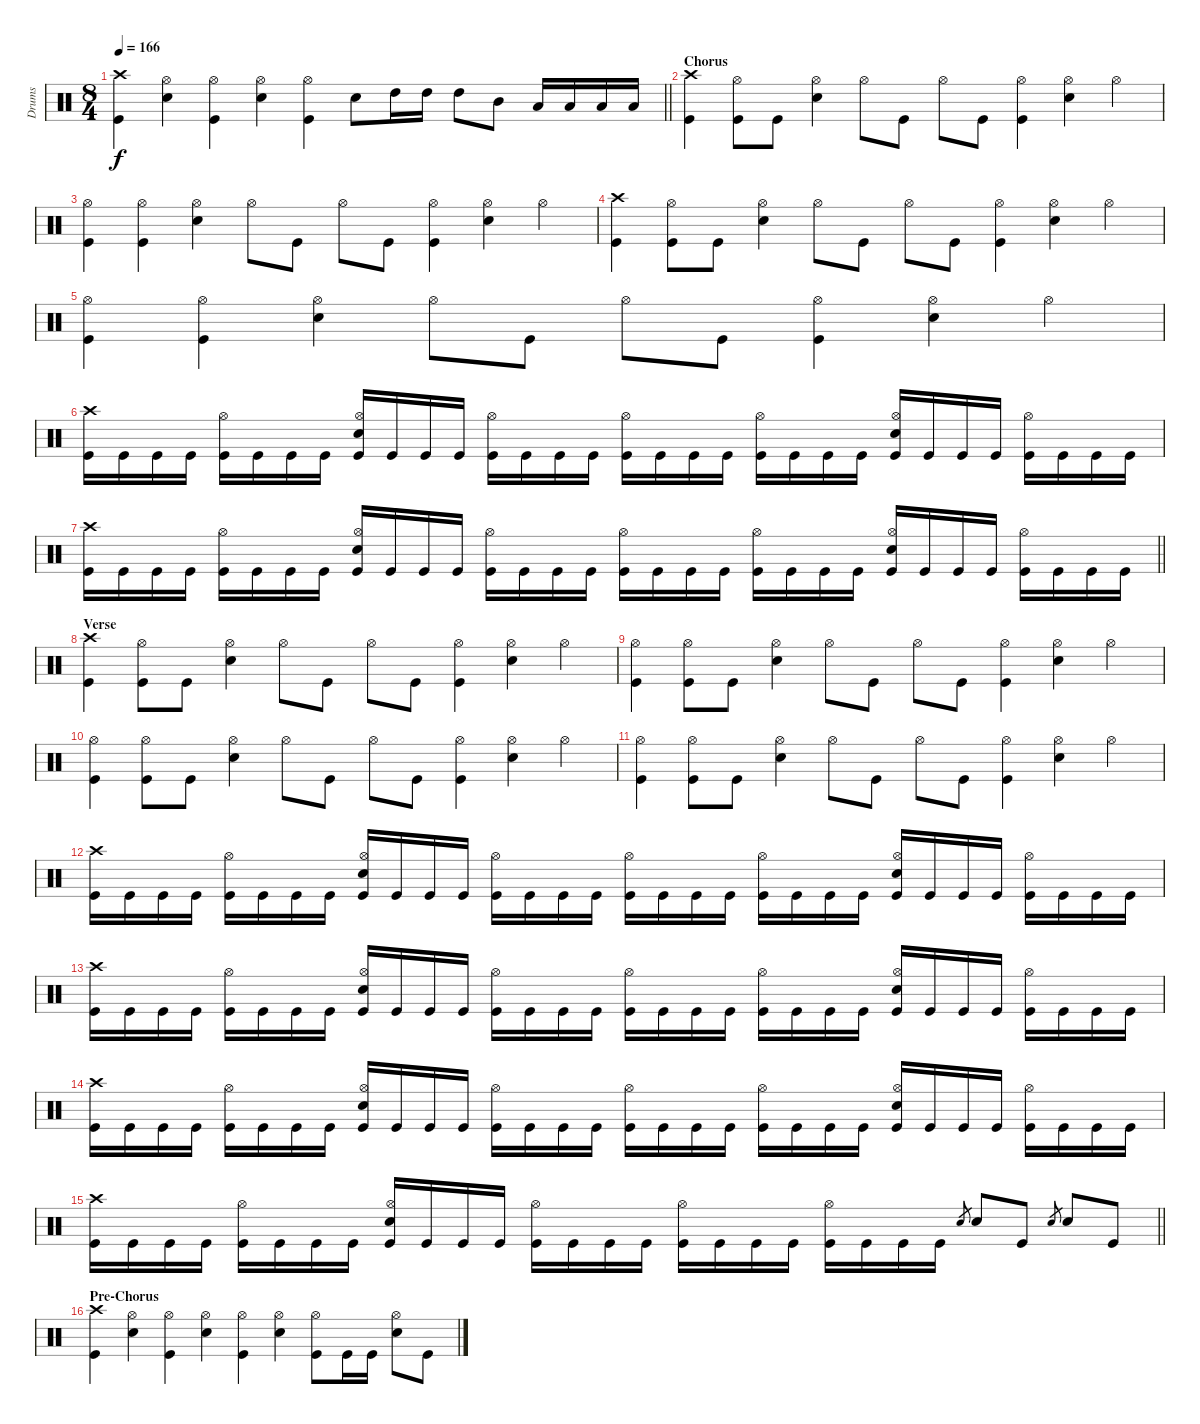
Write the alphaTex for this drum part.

\track ("Drums" "Drums") {instrument percussion}
\staff {score}
\articulation defaults
\ts (8 4)
\tempo 166
\clef neutral
\barLineRight lightlight
\ks c
("Crash high (hit)" "Kick (hit)").4{dy f} ("Hi-Hat (open)" "Snare (hit) 2").4 ("Hi-Hat (open)" "Kick (hit)").4 ("Hi-Hat (open)" "Snare (hit) 2").4 ("Hi-Hat (open)" "Kick (hit)").4 "Snare (hit) 2".8 "High Tom (hit)".16 "High Tom (hit)".16 "High Tom (hit)".8 "Mid Tom (hit)".8 "Low Tom (hit)".16 "Low Tom (hit)".16 "Low Tom (hit)".16 "Low Tom (hit)".16 |
\section ("" "Chorus")
("Crash high (hit)" "Kick (hit)").4 ("Hi-Hat (open)" "Kick (hit)").8 "Kick (hit)".8 ("Hi-Hat (open)" "Snare (hit) 2").4 "Hi-Hat (open)".8 "Kick (hit)".8 "Hi-Hat (open)".8 "Kick (hit)".8 ("Hi-Hat (open)" "Kick (hit)").4 ("Hi-Hat (open)" "Snare (hit) 2").4 "Hi-Hat (open)".4 |
("Hi-Hat (open)" "Kick (hit)").4 ("Hi-Hat (open)" "Kick (hit)").4 ("Hi-Hat (open)" "Snare (hit) 2").4 "Hi-Hat (open)".8 "Kick (hit)".8 "Hi-Hat (open)".8 "Kick (hit)".8 ("Hi-Hat (open)" "Kick (hit)").4 ("Hi-Hat (open)" "Snare (hit) 2").4 "Hi-Hat (open)".4 |
("Crash high (hit)" "Kick (hit)").4 ("Hi-Hat (open)" "Kick (hit)").8 "Kick (hit)".8 ("Hi-Hat (open)" "Snare (hit) 2").4 "Hi-Hat (open)".8 "Kick (hit)".8 "Hi-Hat (open)".8 "Kick (hit)".8 ("Hi-Hat (open)" "Kick (hit)").4 ("Hi-Hat (open)" "Snare (hit) 2").4 "Hi-Hat (open)".4 |
("Hi-Hat (open)" "Kick (hit)").4 ("Hi-Hat (open)" "Kick (hit)").4 ("Hi-Hat (open)" "Snare (hit) 2").4 "Hi-Hat (open)".8 "Kick (hit)".8 "Hi-Hat (open)".8 "Kick (hit)".8 ("Hi-Hat (open)" "Kick (hit)").4 ("Hi-Hat (open)" "Snare (hit) 2").4 "Hi-Hat (open)".4 |
("Crash high (hit)" "Kick (hit)").16 "Kick (hit)".16 "Kick (hit)".16 "Kick (hit)".16 ("Hi-Hat (open)" "Kick (hit)").16 "Kick (hit)".16 "Kick (hit)".16 "Kick (hit)".16 ("Hi-Hat (open)" "Snare (hit) 2" "Kick (hit)").16 "Kick (hit)".16 "Kick (hit)".16 "Kick (hit)".16 ("Hi-Hat (open)" "Kick (hit)").16 "Kick (hit)".16 "Kick (hit)".16 "Kick (hit)".16 ("Hi-Hat (open)" "Kick (hit)").16 "Kick (hit)".16 "Kick (hit)".16 "Kick (hit)".16 ("Hi-Hat (open)" "Kick (hit)").16 "Kick (hit)".16 "Kick (hit)".16 "Kick (hit)".16 ("Hi-Hat (open)" "Snare (hit) 2" "Kick (hit)").16 "Kick (hit)".16 "Kick (hit)".16 "Kick (hit)".16 ("Hi-Hat (open)" "Kick (hit)").16 "Kick (hit)".16 "Kick (hit)".16 "Kick (hit)".16 |
\barLineRight lightlight
("Crash high (hit)" "Kick (hit)").16 "Kick (hit)".16 "Kick (hit)".16 "Kick (hit)".16 ("Hi-Hat (open)" "Kick (hit)").16 "Kick (hit)".16 "Kick (hit)".16 "Kick (hit)".16 ("Hi-Hat (open)" "Snare (hit) 2" "Kick (hit)").16 "Kick (hit)".16 "Kick (hit)".16 "Kick (hit)".16 ("Hi-Hat (open)" "Kick (hit)").16 "Kick (hit)".16 "Kick (hit)".16 "Kick (hit)".16 ("Hi-Hat (open)" "Kick (hit)").16 "Kick (hit)".16 "Kick (hit)".16 "Kick (hit)".16 ("Hi-Hat (open)" "Kick (hit)").16 "Kick (hit)".16 "Kick (hit)".16 "Kick (hit)".16 ("Hi-Hat (open)" "Snare (hit) 2" "Kick (hit)").16 "Kick (hit)".16 "Kick (hit)".16 "Kick (hit)".16 ("Hi-Hat (open)" "Kick (hit)").16 "Kick (hit)".16 "Kick (hit)".16 "Kick (hit)".16 |
\section ("" "Verse")
("Crash high (hit)" "Kick (hit)").4 ("Hi-Hat (open)" "Kick (hit)").8 "Kick (hit)".8 ("Hi-Hat (open)" "Snare (hit) 2").4 "Hi-Hat (open)".8 "Kick (hit)".8 "Hi-Hat (open)".8 "Kick (hit)".8 ("Hi-Hat (open)" "Kick (hit)").4 ("Hi-Hat (open)" "Snare (hit) 2").4 "Hi-Hat (open)".4 |
("Hi-Hat (open)" "Kick (hit)").4 ("Hi-Hat (open)" "Kick (hit)").8 "Kick (hit)".8 ("Hi-Hat (open)" "Snare (hit) 2").4 "Hi-Hat (open)".8 "Kick (hit)".8 "Hi-Hat (open)".8 "Kick (hit)".8 ("Hi-Hat (open)" "Kick (hit)").4 ("Hi-Hat (open)" "Snare (hit) 2").4 "Hi-Hat (open)".4 |
("Hi-Hat (open)" "Kick (hit)").4 ("Hi-Hat (open)" "Kick (hit)").8 "Kick (hit)".8 ("Hi-Hat (open)" "Snare (hit) 2").4 "Hi-Hat (open)".8 "Kick (hit)".8 "Hi-Hat (open)".8 "Kick (hit)".8 ("Hi-Hat (open)" "Kick (hit)").4 ("Hi-Hat (open)" "Snare (hit) 2").4 "Hi-Hat (open)".4 |
("Hi-Hat (open)" "Kick (hit)").4 ("Hi-Hat (open)" "Kick (hit)").8 "Kick (hit)".8 ("Hi-Hat (open)" "Snare (hit) 2").4 "Hi-Hat (open)".8 "Kick (hit)".8 "Hi-Hat (open)".8 "Kick (hit)".8 ("Hi-Hat (open)" "Kick (hit)").4 ("Hi-Hat (open)" "Snare (hit) 2").4 "Hi-Hat (open)".4 |
("Crash high (hit)" "Kick (hit)").16 "Kick (hit)".16 "Kick (hit)".16 "Kick (hit)".16 ("Hi-Hat (open)" "Kick (hit)").16 "Kick (hit)".16 "Kick (hit)".16 "Kick (hit)".16 ("Hi-Hat (open)" "Snare (hit) 2" "Kick (hit)").16 "Kick (hit)".16 "Kick (hit)".16 "Kick (hit)".16 ("Hi-Hat (open)" "Kick (hit)").16 "Kick (hit)".16 "Kick (hit)".16 "Kick (hit)".16 ("Hi-Hat (open)" "Kick (hit)").16 "Kick (hit)".16 "Kick (hit)".16 "Kick (hit)".16 ("Hi-Hat (open)" "Kick (hit)").16 "Kick (hit)".16 "Kick (hit)".16 "Kick (hit)".16 ("Hi-Hat (open)" "Snare (hit) 2" "Kick (hit)").16 "Kick (hit)".16 "Kick (hit)".16 "Kick (hit)".16 ("Hi-Hat (open)" "Kick (hit)").16 "Kick (hit)".16 "Kick (hit)".16 "Kick (hit)".16 |
("Crash high (hit)" "Kick (hit)").16 "Kick (hit)".16 "Kick (hit)".16 "Kick (hit)".16 ("Hi-Hat (open)" "Kick (hit)").16 "Kick (hit)".16 "Kick (hit)".16 "Kick (hit)".16 ("Hi-Hat (open)" "Snare (hit) 2" "Kick (hit)").16 "Kick (hit)".16 "Kick (hit)".16 "Kick (hit)".16 ("Hi-Hat (open)" "Kick (hit)").16 "Kick (hit)".16 "Kick (hit)".16 "Kick (hit)".16 ("Hi-Hat (open)" "Kick (hit)").16 "Kick (hit)".16 "Kick (hit)".16 "Kick (hit)".16 ("Hi-Hat (open)" "Kick (hit)").16 "Kick (hit)".16 "Kick (hit)".16 "Kick (hit)".16 ("Hi-Hat (open)" "Snare (hit) 2" "Kick (hit)").16 "Kick (hit)".16 "Kick (hit)".16 "Kick (hit)".16 ("Hi-Hat (open)" "Kick (hit)").16 "Kick (hit)".16 "Kick (hit)".16 "Kick (hit)".16 |
("Crash high (hit)" "Kick (hit)").16 "Kick (hit)".16 "Kick (hit)".16 "Kick (hit)".16 ("Hi-Hat (open)" "Kick (hit)").16 "Kick (hit)".16 "Kick (hit)".16 "Kick (hit)".16 ("Hi-Hat (open)" "Snare (hit) 2" "Kick (hit)").16 "Kick (hit)".16 "Kick (hit)".16 "Kick (hit)".16 ("Hi-Hat (open)" "Kick (hit)").16 "Kick (hit)".16 "Kick (hit)".16 "Kick (hit)".16 ("Hi-Hat (open)" "Kick (hit)").16 "Kick (hit)".16 "Kick (hit)".16 "Kick (hit)".16 ("Hi-Hat (open)" "Kick (hit)").16 "Kick (hit)".16 "Kick (hit)".16 "Kick (hit)".16 ("Hi-Hat (open)" "Snare (hit) 2" "Kick (hit)").16 "Kick (hit)".16 "Kick (hit)".16 "Kick (hit)".16 ("Hi-Hat (open)" "Kick (hit)").16 "Kick (hit)".16 "Kick (hit)".16 "Kick (hit)".16 |
\barLineRight lightlight
("Crash high (hit)" "Kick (hit)").16 "Kick (hit)".16 "Kick (hit)".16 "Kick (hit)".16 ("Hi-Hat (open)" "Kick (hit)").16 "Kick (hit)".16 "Kick (hit)".16 "Kick (hit)".16 ("Hi-Hat (open)" "Snare (hit) 2" "Kick (hit)").16 "Kick (hit)".16 "Kick (hit)".16 "Kick (hit)".16 ("Hi-Hat (open)" "Kick (hit)").16 "Kick (hit)".16 "Kick (hit)".16 "Kick (hit)".16 ("Hi-Hat (open)" "Kick (hit)").16 "Kick (hit)".16 "Kick (hit)".16 "Kick (hit)".16 ("Hi-Hat (open)" "Kick (hit)").16 "Kick (hit)".16 "Kick (hit)".16 "Kick (hit)".16 "Snare (hit) 2".8{gr} "Snare (hit) 2".8 "Kick (hit)".8 "Snare (hit) 2".8{gr} "Snare (hit) 2".8 "Kick (hit)".8 |
\section ("" "Pre-Chorus")
("Crash high (hit)" "Kick (hit)").4 ("Hi-Hat (open)" "Snare (hit) 2").4 ("Hi-Hat (open)" "Kick (hit)").4 ("Hi-Hat (open)" "Snare (hit) 2").4 ("Hi-Hat (open)" "Kick (hit)").4 ("Hi-Hat (open)" "Snare (hit) 2").4 ("Hi-Hat (open)" "Kick (hit)").8 "Kick (hit)".16 "Kick (hit)".16 ("Hi-Hat (open)" "Snare (hit) 2").8 "Kick (hit)".8
